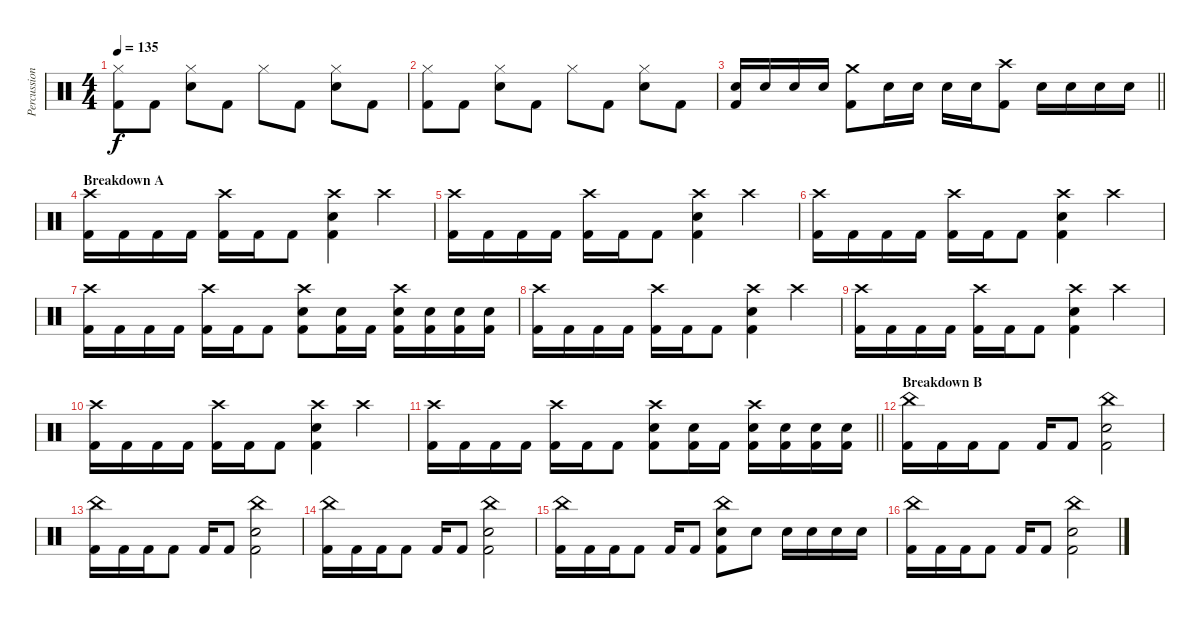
\track ("Percussion" "Percussion") {instrument percussion}
\staff {score}
\articulation defaults
\ts (4 4)
\tempo 135
\clef neutral
\ks c
("Hi-Hat (closed)" "Kick (hit) 2").8{dy f} "Kick (hit) 2".8 ("Hi-Hat (closed)" "Electric Snare (hit)").8 "Kick (hit) 2".8 "Hi-Hat (closed)".8 "Kick (hit) 2".8 ("Hi-Hat (closed)" "Electric Snare (hit)").8 "Kick (hit) 2".8 |
("Hi-Hat (closed)" "Kick (hit) 2").8 "Kick (hit) 2".8 ("Hi-Hat (closed)" "Electric Snare (hit)").8 "Kick (hit) 2".8 "Hi-Hat (closed)".8 "Kick (hit) 2".8 ("Hi-Hat (closed)" "Electric Snare (hit)").8 "Kick (hit) 2".8 |
\barLineRight lightlight
("Electric Snare (hit)" "Kick (hit) 2").16 "Electric Snare (hit)".16 "Electric Snare (hit)".16 "Electric Snare (hit)".16 ("Crash medium (hit)" "Kick (hit) 2").8 "Electric Snare (hit)".16 "Electric Snare (hit)".16 "Electric Snare (hit)".16 "Electric Snare (hit)".16 ("Crash high (hit)" "Kick (hit) 2").8 "Electric Snare (hit)".16 "Electric Snare (hit)".16 "Electric Snare (hit)".16 "Electric Snare (hit)".16 |
\section ("" "Breakdown A")
("Crash high (hit)" "Kick (hit) 2").16 "Kick (hit) 2".16 "Kick (hit) 2".16 "Kick (hit) 2".16 ("Crash high (hit)" "Kick (hit) 2").16 "Kick (hit) 2".16 "Kick (hit) 2".8 ("Crash high (hit)" "Electric Snare (hit)" "Kick (hit) 2").4 "Crash high (hit)".4 |
("Crash high (hit)" "Kick (hit) 2").16 "Kick (hit) 2".16 "Kick (hit) 2".16 "Kick (hit) 2".16 ("Crash high (hit)" "Kick (hit) 2").16 "Kick (hit) 2".16 "Kick (hit) 2".8 ("Crash high (hit)" "Electric Snare (hit)" "Kick (hit) 2").4 "Crash high (hit)".4 |
("Crash high (hit)" "Kick (hit) 2").16 "Kick (hit) 2".16 "Kick (hit) 2".16 "Kick (hit) 2".16 ("Crash high (hit)" "Kick (hit) 2").16 "Kick (hit) 2".16 "Kick (hit) 2".8 ("Crash high (hit)" "Electric Snare (hit)" "Kick (hit) 2").4 "Crash high (hit)".4 |
("Crash high (hit)" "Kick (hit) 2").16 "Kick (hit) 2".16 "Kick (hit) 2".16 "Kick (hit) 2".16 ("Crash high (hit)" "Kick (hit) 2").16 "Kick (hit) 2".16 "Kick (hit) 2".8 ("Crash high (hit)" "Electric Snare (hit)" "Kick (hit) 2").8 ("Electric Snare (hit)" "Kick (hit) 2").16 "Kick (hit) 2".16 ("Crash high (hit)" "Electric Snare (hit)" "Kick (hit) 2").16 ("Electric Snare (hit)" "Kick (hit) 2").16 ("Electric Snare (hit)" "Kick (hit) 2").16 ("Electric Snare (hit)" "Kick (hit) 2").16 |
("Crash high (hit)" "Kick (hit) 2").16 "Kick (hit) 2".16 "Kick (hit) 2".16 "Kick (hit) 2".16 ("Crash high (hit)" "Kick (hit) 2").16 "Kick (hit) 2".16 "Kick (hit) 2".8 ("Crash high (hit)" "Electric Snare (hit)" "Kick (hit) 2").4 "Crash high (hit)".4 |
("Crash high (hit)" "Kick (hit) 2").16 "Kick (hit) 2".16 "Kick (hit) 2".16 "Kick (hit) 2".16 ("Crash high (hit)" "Kick (hit) 2").16 "Kick (hit) 2".16 "Kick (hit) 2".8 ("Crash high (hit)" "Electric Snare (hit)" "Kick (hit) 2").4 "Crash high (hit)".4 |
("Crash high (hit)" "Kick (hit) 2").16 "Kick (hit) 2".16 "Kick (hit) 2".16 "Kick (hit) 2".16 ("Crash high (hit)" "Kick (hit) 2").16 "Kick (hit) 2".16 "Kick (hit) 2".8 ("Crash high (hit)" "Electric Snare (hit)" "Kick (hit) 2").4 "Crash high (hit)".4 |
\barLineRight lightlight
("Crash high (hit)" "Kick (hit) 2").16 "Kick (hit) 2".16 "Kick (hit) 2".16 "Kick (hit) 2".16 ("Crash high (hit)" "Kick (hit) 2").16 "Kick (hit) 2".16 "Kick (hit) 2".8 ("Crash high (hit)" "Electric Snare (hit)" "Kick (hit) 2").8 ("Electric Snare (hit)" "Kick (hit) 2").16 "Kick (hit) 2".16 ("Crash high (hit)" "Electric Snare (hit)" "Kick (hit) 2").16 ("Electric Snare (hit)" "Kick (hit) 2").16 ("Electric Snare (hit)" "Kick (hit) 2").16 ("Electric Snare (hit)" "Kick (hit) 2").16 |
\section ("" "Breakdown B")
("China (hit)" "Kick (hit) 2").16 "Kick (hit) 2".16 "Kick (hit) 2".16 "Kick (hit) 2".8 "Kick (hit) 2".16 "Kick (hit) 2".8 ("China (hit)" "Electric Snare (hit)" "Kick (hit) 2").2 |
("China (hit)" "Kick (hit) 2").16 "Kick (hit) 2".16 "Kick (hit) 2".16 "Kick (hit) 2".8 "Kick (hit) 2".16 "Kick (hit) 2".8 ("China (hit)" "Electric Snare (hit)" "Kick (hit) 2").2 |
("China (hit)" "Kick (hit) 2").16 "Kick (hit) 2".16 "Kick (hit) 2".16 "Kick (hit) 2".8 "Kick (hit) 2".16 "Kick (hit) 2".8 ("China (hit)" "Electric Snare (hit)" "Kick (hit) 2").2 |
("China (hit)" "Kick (hit) 2").16 "Kick (hit) 2".16 "Kick (hit) 2".16 "Kick (hit) 2".8 "Kick (hit) 2".16 "Kick (hit) 2".8 ("China (hit)" "Electric Snare (hit)" "Kick (hit) 2").8 "Electric Snare (hit)".8 "Electric Snare (hit)".16 "Electric Snare (hit)".16 "Electric Snare (hit)".16 "Electric Snare (hit)".16 |
("China (hit)" "Kick (hit) 2").16 "Kick (hit) 2".16 "Kick (hit) 2".16 "Kick (hit) 2".8 "Kick (hit) 2".16 "Kick (hit) 2".8 ("China (hit)" "Electric Snare (hit)" "Kick (hit) 2").2
